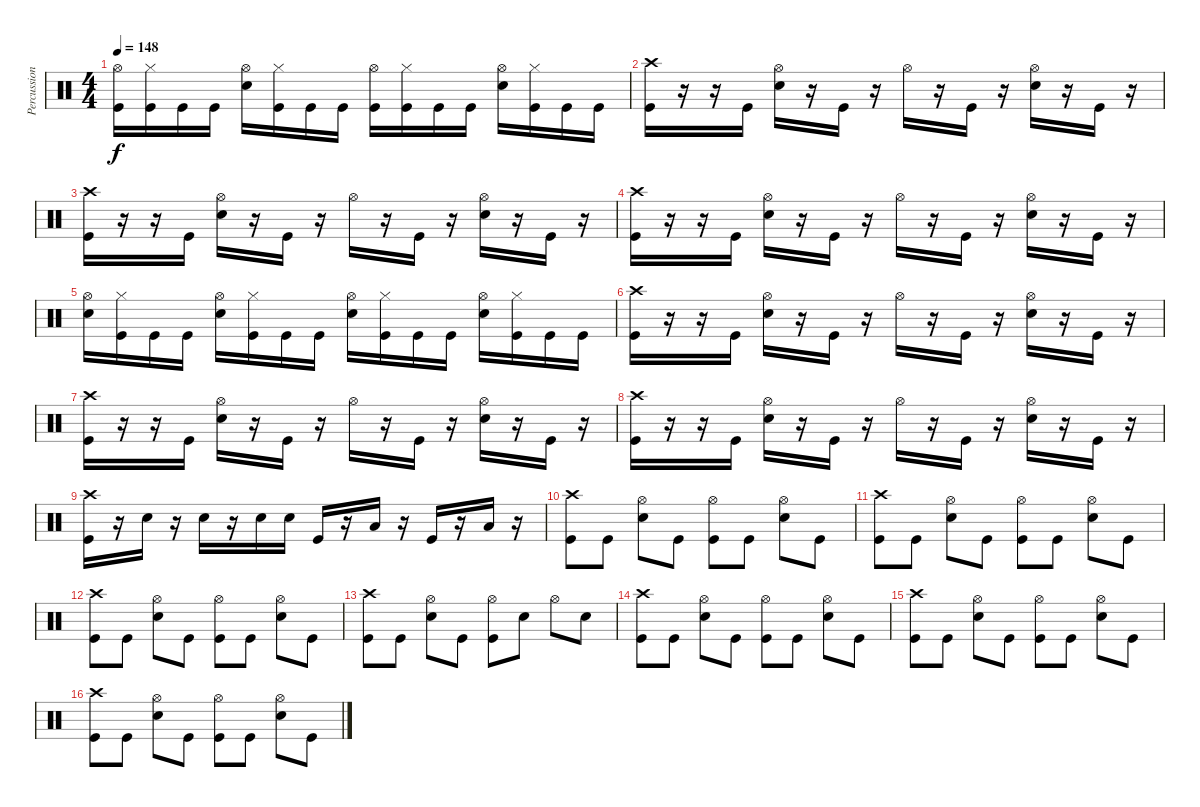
\track ("Percussion" "Percussion") {instrument percussion}
\staff {score}
\articulation defaults
\ts (4 4)
\tempo 148
\clef neutral
\ks c
("Hi-Hat (open)" "Kick (hit)").16{dy f} ("Hi-Hat (closed)" "Kick (hit)").16 "Kick (hit)".16 "Kick (hit)".16 ("Hi-Hat (open)" "Snare (hit) 2").16 ("Hi-Hat (closed)" "Kick (hit)").16 "Kick (hit)".16 "Kick (hit)".16 ("Hi-Hat (open)" "Kick (hit)").16 ("Hi-Hat (closed)" "Kick (hit)").16 "Kick (hit)".16 "Kick (hit)".16 ("Hi-Hat (open)" "Snare (hit) 2").16 ("Hi-Hat (closed)" "Kick (hit)").16 "Kick (hit)".16 "Kick (hit)".16 |
("Crash high (hit)" "Kick (hit)").16 r.16 r.16 "Kick (hit)".16 ("Hi-Hat (open)" "Snare (hit) 2").16 r.16 "Kick (hit)".16 r.16 "Hi-Hat (open)".16 r.16 "Kick (hit)".16 r.16 ("Hi-Hat (open)" "Snare (hit) 2").16 r.16 "Kick (hit)".16 r.16 |
("Crash high (hit)" "Kick (hit)").16 r.16 r.16 "Kick (hit)".16 ("Hi-Hat (open)" "Snare (hit) 2").16 r.16 "Kick (hit)".16 r.16 "Hi-Hat (open)".16 r.16 "Kick (hit)".16 r.16 ("Hi-Hat (open)" "Snare (hit) 2").16 r.16 "Kick (hit)".16 r.16 |
("Crash high (hit)" "Kick (hit)").16 r.16 r.16 "Kick (hit)".16 ("Hi-Hat (open)" "Snare (hit) 2").16 r.16 "Kick (hit)".16 r.16 "Hi-Hat (open)".16 r.16 "Kick (hit)".16 r.16 ("Hi-Hat (open)" "Snare (hit) 2").16 r.16 "Kick (hit)".16 r.16 |
("Hi-Hat (open)" "Snare (hit) 2").16 ("Hi-Hat (closed)" "Kick (hit)").16 "Kick (hit)".16 "Kick (hit)".16 ("Hi-Hat (open)" "Snare (hit) 2").16 ("Hi-Hat (closed)" "Kick (hit)").16 "Kick (hit)".16 "Kick (hit)".16 ("Hi-Hat (open)" "Snare (hit) 2").16 ("Hi-Hat (closed)" "Kick (hit)").16 "Kick (hit)".16 "Kick (hit)".16 ("Hi-Hat (open)" "Snare (hit) 2").16 ("Hi-Hat (closed)" "Kick (hit)").16 "Kick (hit)".16 "Kick (hit)".16 |
("Crash high (hit)" "Kick (hit)").16 r.16 r.16 "Kick (hit)".16 ("Hi-Hat (open)" "Snare (hit) 2").16 r.16 "Kick (hit)".16 r.16 "Hi-Hat (open)".16 r.16 "Kick (hit)".16 r.16 ("Hi-Hat (open)" "Snare (hit) 2").16 r.16 "Kick (hit)".16 r.16 |
("Crash high (hit)" "Kick (hit)").16 r.16 r.16 "Kick (hit)".16 ("Hi-Hat (open)" "Snare (hit) 2").16 r.16 "Kick (hit)".16 r.16 "Hi-Hat (open)".16 r.16 "Kick (hit)".16 r.16 ("Hi-Hat (open)" "Snare (hit) 2").16 r.16 "Kick (hit)".16 r.16 |
("Crash high (hit)" "Kick (hit)").16 r.16 r.16 "Kick (hit)".16 ("Hi-Hat (open)" "Snare (hit) 2").16 r.16 "Kick (hit)".16 r.16 "Hi-Hat (open)".16 r.16 "Kick (hit)".16 r.16 ("Hi-Hat (open)" "Snare (hit) 2").16 r.16 "Kick (hit)".16 r.16 |
("Crash high (hit)" "Kick (hit)").16 r.16 "Snare (hit) 2".16 r.16 "Snare (hit) 2".16 r.16 "Snare (hit) 2".16 "Snare (hit) 2".16 "Kick (hit)".16 r.16 "Low Floor Tom (hit)".16 r.16 "Kick (hit)".16 r.16 "Low Floor Tom (hit)".16 r.16 |
("Crash high (hit)" "Kick (hit)").8 "Kick (hit)".8 ("Hi-Hat (open)" "Snare (hit) 2").8 "Kick (hit)".8 ("Hi-Hat (open)" "Kick (hit)").8 "Kick (hit)".8 ("Hi-Hat (open)" "Snare (hit) 2").8 "Kick (hit)".8 |
("Crash high (hit)" "Kick (hit)").8 "Kick (hit)".8 ("Hi-Hat (open)" "Snare (hit) 2").8 "Kick (hit)".8 ("Hi-Hat (open)" "Kick (hit)").8 "Kick (hit)".8 ("Hi-Hat (open)" "Snare (hit) 2").8 "Kick (hit)".8 |
("Crash high (hit)" "Kick (hit)").8 "Kick (hit)".8 ("Hi-Hat (open)" "Snare (hit) 2").8 "Kick (hit)".8 ("Hi-Hat (open)" "Kick (hit)").8 "Kick (hit)".8 ("Hi-Hat (open)" "Snare (hit) 2").8 "Kick (hit)".8 |
("Crash high (hit)" "Kick (hit)").8 "Kick (hit)".8 ("Hi-Hat (open)" "Snare (hit) 2").8 "Kick (hit)".8 ("Hi-Hat (open)" "Kick (hit)").8 "Snare (hit) 2".8 "Hi-Hat (open)".8 "Snare (hit) 2".8 |
("Crash high (hit)" "Kick (hit)").8 "Kick (hit)".8 ("Hi-Hat (open)" "Snare (hit) 2").8 "Kick (hit)".8 ("Hi-Hat (open)" "Kick (hit)").8 "Kick (hit)".8 ("Hi-Hat (open)" "Snare (hit) 2").8 "Kick (hit)".8 |
("Crash high (hit)" "Kick (hit)").8 "Kick (hit)".8 ("Hi-Hat (open)" "Snare (hit) 2").8 "Kick (hit)".8 ("Hi-Hat (open)" "Kick (hit)").8 "Kick (hit)".8 ("Hi-Hat (open)" "Snare (hit) 2").8 "Kick (hit)".8 |
("Crash high (hit)" "Kick (hit)").8 "Kick (hit)".8 ("Hi-Hat (open)" "Snare (hit) 2").8 "Kick (hit)".8 ("Hi-Hat (open)" "Kick (hit)").8 "Kick (hit)".8 ("Hi-Hat (open)" "Snare (hit) 2").8 "Kick (hit)".8
